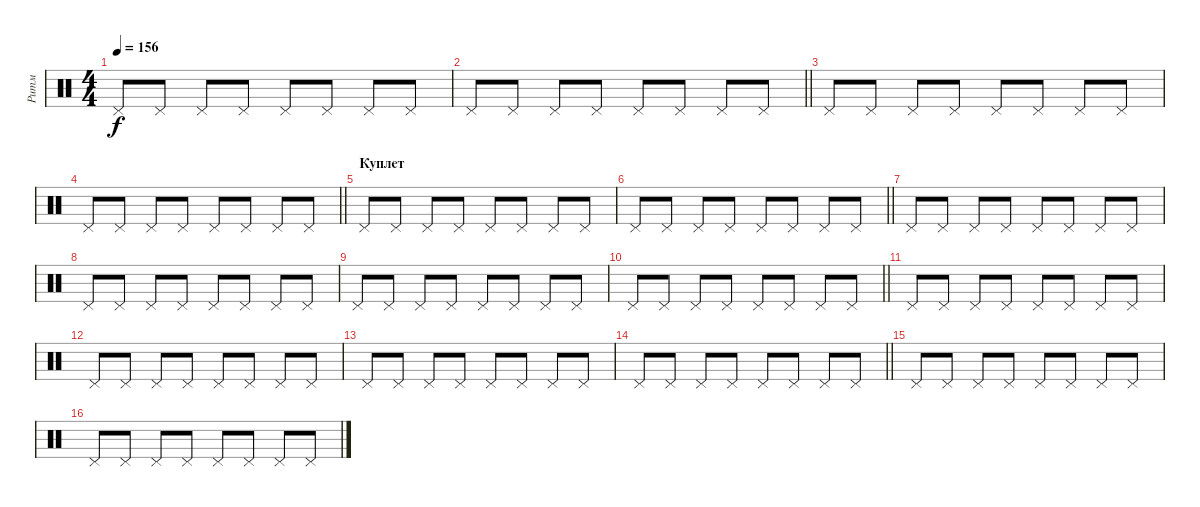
\track ("Ритм" "Ритм") {instrument percussion}
\staff {score}
\articulation defaults
\ts (4 4)
\tempo 156
\clef neutral
\ks c "Pedal Hi-Hat (hit)".8{dy f} "Pedal Hi-Hat (hit)".8 "Pedal Hi-Hat (hit)".8 "Pedal Hi-Hat (hit)".8 "Pedal Hi-Hat (hit)".8 "Pedal Hi-Hat (hit)".8 "Pedal Hi-Hat (hit)".8 "Pedal Hi-Hat (hit)".8
|
\barLineRight lightlight "Pedal Hi-Hat (hit)".8 "Pedal Hi-Hat (hit)".8 "Pedal Hi-Hat (hit)".8 "Pedal Hi-Hat (hit)".8 "Pedal Hi-Hat (hit)".8 "Pedal Hi-Hat (hit)".8 "Pedal Hi-Hat (hit)".8 "Pedal Hi-Hat (hit)".8
|
"Pedal Hi-Hat (hit)".8 "Pedal Hi-Hat (hit)".8 "Pedal Hi-Hat (hit)".8 "Pedal Hi-Hat (hit)".8 "Pedal Hi-Hat (hit)".8 "Pedal Hi-Hat (hit)".8 "Pedal Hi-Hat (hit)".8 "Pedal Hi-Hat (hit)".8 |
\barLineRight lightlight "Pedal Hi-Hat (hit)".8 "Pedal Hi-Hat (hit)".8 "Pedal Hi-Hat (hit)".8 "Pedal Hi-Hat (hit)".8 "Pedal Hi-Hat (hit)".8 "Pedal Hi-Hat (hit)".8 "Pedal Hi-Hat (hit)".8 "Pedal Hi-Hat (hit)".8
|
\section ("" "Куплет")
"Pedal Hi-Hat (hit)".8 "Pedal Hi-Hat (hit)".8 "Pedal Hi-Hat (hit)".8 "Pedal Hi-Hat (hit)".8 "Pedal Hi-Hat (hit)".8 "Pedal Hi-Hat (hit)".8 "Pedal Hi-Hat (hit)".8 "Pedal Hi-Hat (hit)".8 |
\barLineRight lightlight "Pedal Hi-Hat (hit)".8 "Pedal Hi-Hat (hit)".8 "Pedal Hi-Hat (hit)".8 "Pedal Hi-Hat (hit)".8 "Pedal Hi-Hat (hit)".8 "Pedal Hi-Hat (hit)".8 "Pedal Hi-Hat (hit)".8 "Pedal Hi-Hat (hit)".8
|
"Pedal Hi-Hat (hit)".8 "Pedal Hi-Hat (hit)".8 "Pedal Hi-Hat (hit)".8 "Pedal Hi-Hat (hit)".8 "Pedal Hi-Hat (hit)".8 "Pedal Hi-Hat (hit)".8 "Pedal Hi-Hat (hit)".8 "Pedal Hi-Hat (hit)".8 |
"Pedal Hi-Hat (hit)".8 "Pedal Hi-Hat (hit)".8 "Pedal Hi-Hat (hit)".8 "Pedal Hi-Hat (hit)".8 "Pedal Hi-Hat (hit)".8 "Pedal Hi-Hat (hit)".8 "Pedal Hi-Hat (hit)".8 "Pedal Hi-Hat (hit)".8 |
"Pedal Hi-Hat (hit)".8 "Pedal Hi-Hat (hit)".8 "Pedal Hi-Hat (hit)".8 "Pedal Hi-Hat (hit)".8 "Pedal Hi-Hat (hit)".8 "Pedal Hi-Hat (hit)".8 "Pedal Hi-Hat (hit)".8 "Pedal Hi-Hat (hit)".8 |
\barLineRight lightlight "Pedal Hi-Hat (hit)".8 "Pedal Hi-Hat (hit)".8 "Pedal Hi-Hat (hit)".8 "Pedal Hi-Hat (hit)".8 "Pedal Hi-Hat (hit)".8 "Pedal Hi-Hat (hit)".8 "Pedal Hi-Hat (hit)".8 "Pedal Hi-Hat (hit)".8
|
"Pedal Hi-Hat (hit)".8 "Pedal Hi-Hat (hit)".8 "Pedal Hi-Hat (hit)".8 "Pedal Hi-Hat (hit)".8 "Pedal Hi-Hat (hit)".8 "Pedal Hi-Hat (hit)".8 "Pedal Hi-Hat (hit)".8 "Pedal Hi-Hat (hit)".8 |
"Pedal Hi-Hat (hit)".8 "Pedal Hi-Hat (hit)".8 "Pedal Hi-Hat (hit)".8 "Pedal Hi-Hat (hit)".8 "Pedal Hi-Hat (hit)".8 "Pedal Hi-Hat (hit)".8 "Pedal Hi-Hat (hit)".8 "Pedal Hi-Hat (hit)".8 |
"Pedal Hi-Hat (hit)".8 "Pedal Hi-Hat (hit)".8 "Pedal Hi-Hat (hit)".8 "Pedal Hi-Hat (hit)".8 "Pedal Hi-Hat (hit)".8 "Pedal Hi-Hat (hit)".8 "Pedal Hi-Hat (hit)".8 "Pedal Hi-Hat (hit)".8 |
\barLineRight lightlight "Pedal Hi-Hat (hit)".8 "Pedal Hi-Hat (hit)".8 "Pedal Hi-Hat (hit)".8 "Pedal Hi-Hat (hit)".8 "Pedal Hi-Hat (hit)".8 "Pedal Hi-Hat (hit)".8 "Pedal Hi-Hat (hit)".8 "Pedal Hi-Hat (hit)".8
|
"Pedal Hi-Hat (hit)".8 "Pedal Hi-Hat (hit)".8 "Pedal Hi-Hat (hit)".8 "Pedal Hi-Hat (hit)".8 "Pedal Hi-Hat (hit)".8 "Pedal Hi-Hat (hit)".8 "Pedal Hi-Hat (hit)".8 "Pedal Hi-Hat (hit)".8 |
"Pedal Hi-Hat (hit)".8 "Pedal Hi-Hat (hit)".8 "Pedal Hi-Hat (hit)".8 "Pedal Hi-Hat (hit)".8 "Pedal Hi-Hat (hit)".8 "Pedal Hi-Hat (hit)".8 "Pedal Hi-Hat (hit)".8 "Pedal Hi-Hat (hit)".8
